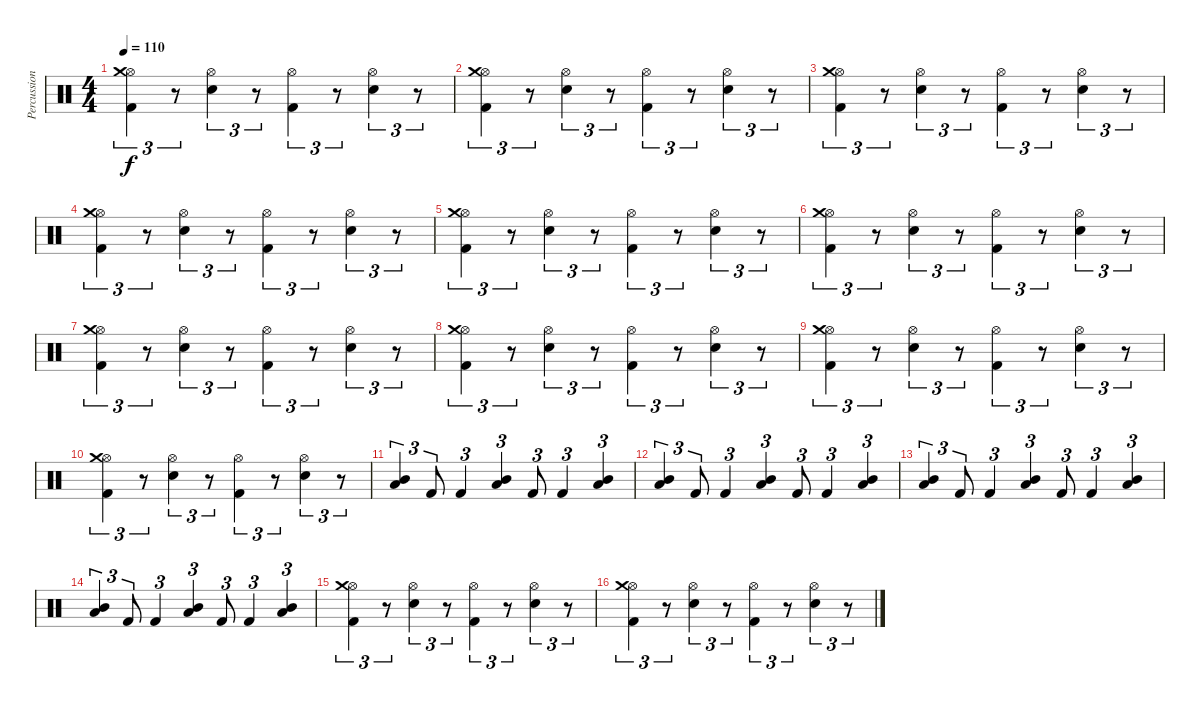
\track ("Percussion" "Percussion") {instrument percussion}
\staff {score}
\articulation defaults
\ts (4 4)
\tempo 110
\clef neutral
\ks c
("Kick (hit) 2" "Hi-Hat (open)" "Crash medium (hit)").4{tu (3 2) dy f} r.8{tu (3 2)} ("Electric Snare (hit)" "Hi-Hat (open)").4{tu (3 2)} r.8{tu (3 2)} ("Kick (hit) 2" "Hi-Hat (open)").4{tu (3 2)} r.8{tu (3 2)} ("Electric Snare (hit)" "Hi-Hat (open)").4{tu (3 2)} r.8{tu (3 2)} |
("Kick (hit) 2" "Hi-Hat (open)" "Crash medium (hit)").4{tu (3 2)} r.8{tu (3 2)} ("Electric Snare (hit)" "Hi-Hat (open)").4{tu (3 2)} r.8{tu (3 2)} ("Kick (hit) 2" "Hi-Hat (open)").4{tu (3 2)} r.8{tu (3 2)} ("Electric Snare (hit)" "Hi-Hat (open)").4{tu (3 2)} r.8{tu (3 2)} |
("Kick (hit) 2" "Hi-Hat (open)" "Crash medium (hit)").4{tu (3 2)} r.8{tu (3 2)} ("Electric Snare (hit)" "Hi-Hat (open)").4{tu (3 2)} r.8{tu (3 2)} ("Kick (hit) 2" "Hi-Hat (open)").4{tu (3 2)} r.8{tu (3 2)} ("Electric Snare (hit)" "Hi-Hat (open)").4{tu (3 2)} r.8{tu (3 2)} |
("Kick (hit) 2" "Hi-Hat (open)" "Crash medium (hit)").4{tu (3 2)} r.8{tu (3 2)} ("Electric Snare (hit)" "Hi-Hat (open)").4{tu (3 2)} r.8{tu (3 2)} ("Kick (hit) 2" "Hi-Hat (open)").4{tu (3 2)} r.8{tu (3 2)} ("Electric Snare (hit)" "Hi-Hat (open)").4{tu (3 2)} r.8{tu (3 2)} |
("Kick (hit) 2" "Hi-Hat (open)" "Crash medium (hit)").4{tu (3 2)} r.8{tu (3 2)} ("Electric Snare (hit)" "Hi-Hat (open)").4{tu (3 2)} r.8{tu (3 2)} ("Kick (hit) 2" "Hi-Hat (open)").4{tu (3 2)} r.8{tu (3 2)} ("Electric Snare (hit)" "Hi-Hat (open)").4{tu (3 2)} r.8{tu (3 2)} |
("Kick (hit) 2" "Hi-Hat (open)" "Crash medium (hit)").4{tu (3 2)} r.8{tu (3 2)} ("Electric Snare (hit)" "Hi-Hat (open)").4{tu (3 2)} r.8{tu (3 2)} ("Kick (hit) 2" "Hi-Hat (open)").4{tu (3 2)} r.8{tu (3 2)} ("Electric Snare (hit)" "Hi-Hat (open)").4{tu (3 2)} r.8{tu (3 2)} |
("Kick (hit) 2" "Hi-Hat (open)" "Crash medium (hit)").4{tu (3 2)} r.8{tu (3 2)} ("Electric Snare (hit)" "Hi-Hat (open)").4{tu (3 2)} r.8{tu (3 2)} ("Kick (hit) 2" "Hi-Hat (open)").4{tu (3 2)} r.8{tu (3 2)} ("Electric Snare (hit)" "Hi-Hat (open)").4{tu (3 2)} r.8{tu (3 2)} |
("Kick (hit) 2" "Hi-Hat (open)" "Crash medium (hit)").4{tu (3 2)} r.8{tu (3 2)} ("Electric Snare (hit)" "Hi-Hat (open)").4{tu (3 2)} r.8{tu (3 2)} ("Kick (hit) 2" "Hi-Hat (open)").4{tu (3 2)} r.8{tu (3 2)} ("Electric Snare (hit)" "Hi-Hat (open)").4{tu (3 2)} r.8{tu (3 2)} |
("Kick (hit) 2" "Hi-Hat (open)" "Crash medium (hit)").4{tu (3 2)} r.8{tu (3 2)} ("Electric Snare (hit)" "Hi-Hat (open)").4{tu (3 2)} r.8{tu (3 2)} ("Kick (hit) 2" "Hi-Hat (open)").4{tu (3 2)} r.8{tu (3 2)} ("Electric Snare (hit)" "Hi-Hat (open)").4{tu (3 2)} r.8{tu (3 2)} |
("Kick (hit) 2" "Hi-Hat (open)" "Crash medium (hit)").4{tu (3 2)} r.8{tu (3 2)} ("Electric Snare (hit)" "Hi-Hat (open)").4{tu (3 2)} r.8{tu (3 2)} ("Kick (hit) 2" "Hi-Hat (open)").4{tu (3 2)} r.8{tu (3 2)} ("Electric Snare (hit)" "Hi-Hat (open)").4{tu (3 2)} r.8{tu (3 2)} |
("Low Tom (hit)" "Mid Tom (hit)").4{tu (3 2)} "Kick (hit) 2".8{tu (3 2)} "Kick (hit) 2".4{tu (3 2)} ("Low Tom (hit)" "Mid Tom (hit)").4{tu (3 2)} "Kick (hit) 2".8{tu (3 2)} "Kick (hit) 2".4{tu (3 2)} ("Low Tom (hit)" "Mid Tom (hit)").4{tu (3 2)} |
("Low Tom (hit)" "Mid Tom (hit)").4{tu (3 2)} "Kick (hit) 2".8{tu (3 2)} "Kick (hit) 2".4{tu (3 2)} ("Low Tom (hit)" "Mid Tom (hit)").4{tu (3 2)} "Kick (hit) 2".8{tu (3 2)} "Kick (hit) 2".4{tu (3 2)} ("Low Tom (hit)" "Mid Tom (hit)").4{tu (3 2)} |
("Low Tom (hit)" "Mid Tom (hit)").4{tu (3 2)} "Kick (hit) 2".8{tu (3 2)} "Kick (hit) 2".4{tu (3 2)} ("Low Tom (hit)" "Mid Tom (hit)").4{tu (3 2)} "Kick (hit) 2".8{tu (3 2)} "Kick (hit) 2".4{tu (3 2)} ("Low Tom (hit)" "Mid Tom (hit)").4{tu (3 2)} |
("Low Tom (hit)" "Mid Tom (hit)").4{tu (3 2)} "Kick (hit) 2".8{tu (3 2)} "Kick (hit) 2".4{tu (3 2)} ("Low Tom (hit)" "Mid Tom (hit)").4{tu (3 2)} "Kick (hit) 2".8{tu (3 2)} "Kick (hit) 2".4{tu (3 2)} ("Low Tom (hit)" "Mid Tom (hit)").4{tu (3 2)} |
("Kick (hit) 2" "Hi-Hat (open)" "Crash medium (hit)").4{tu (3 2)} r.8{tu (3 2)} ("Electric Snare (hit)" "Hi-Hat (open)").4{tu (3 2)} r.8{tu (3 2)} ("Kick (hit) 2" "Hi-Hat (open)").4{tu (3 2)} r.8{tu (3 2)} ("Electric Snare (hit)" "Hi-Hat (open)").4{tu (3 2)} r.8{tu (3 2)} |
("Kick (hit) 2" "Hi-Hat (open)" "Crash medium (hit)").4{tu (3 2)} r.8{tu (3 2)} ("Electric Snare (hit)" "Hi-Hat (open)").4{tu (3 2)} r.8{tu (3 2)} ("Kick (hit) 2" "Hi-Hat (open)").4{tu (3 2)} r.8{tu (3 2)} ("Electric Snare (hit)" "Hi-Hat (open)").4{tu (3 2)} r.8{tu (3 2)}
